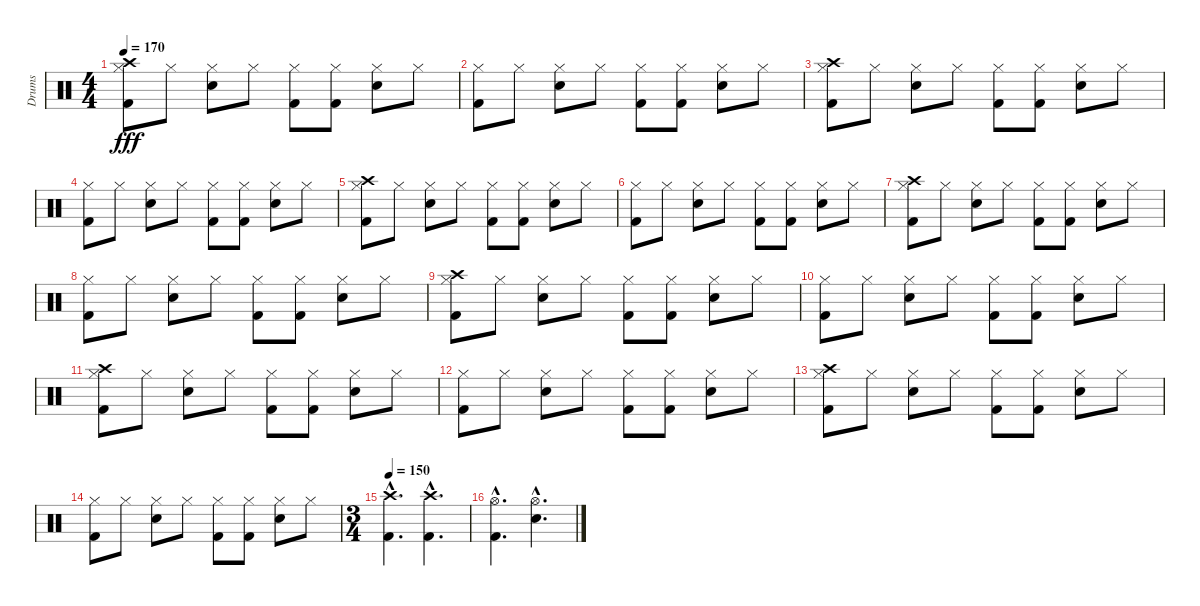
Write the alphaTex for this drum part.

\track ("Drums" "Drums") {instrument percussion}
\staff {score}
\articulation defaults
\ts (4 4)
\tempo 170
\clef neutral
\ks c
("Hi-Hat (closed)" "Kick (hit) 2" "Crash high (hit)").8{dy fff} "Hi-Hat (closed)".8 ("Hi-Hat (closed)" "Snare (hit) 2").8 "Hi-Hat (closed)".8 ("Hi-Hat (closed)" "Kick (hit) 2").8 ("Hi-Hat (closed)" "Kick (hit) 2").8 ("Hi-Hat (closed)" "Snare (hit) 2").8 "Hi-Hat (closed)".8 |
("Hi-Hat (closed)" "Kick (hit) 2").8 "Hi-Hat (closed)".8 ("Hi-Hat (closed)" "Snare (hit) 2").8 "Hi-Hat (closed)".8 ("Hi-Hat (closed)" "Kick (hit) 2").8 ("Hi-Hat (closed)" "Kick (hit) 2").8 ("Hi-Hat (closed)" "Snare (hit) 2").8 "Hi-Hat (closed)".8 |
("Hi-Hat (closed)" "Kick (hit) 2" "Crash high (hit)").8 "Hi-Hat (closed)".8 ("Hi-Hat (closed)" "Snare (hit) 2").8 "Hi-Hat (closed)".8 ("Hi-Hat (closed)" "Kick (hit) 2").8 ("Hi-Hat (closed)" "Kick (hit) 2").8 ("Hi-Hat (closed)" "Snare (hit) 2").8 "Hi-Hat (closed)".8 |
("Hi-Hat (closed)" "Kick (hit) 2").8 "Hi-Hat (closed)".8 ("Hi-Hat (closed)" "Snare (hit) 2").8 "Hi-Hat (closed)".8 ("Hi-Hat (closed)" "Kick (hit) 2").8 ("Hi-Hat (closed)" "Kick (hit) 2").8 ("Hi-Hat (closed)" "Snare (hit) 2").8 "Hi-Hat (closed)".8 |
("Hi-Hat (closed)" "Kick (hit) 2" "Crash high (hit)").8 "Hi-Hat (closed)".8 ("Hi-Hat (closed)" "Snare (hit) 2").8 "Hi-Hat (closed)".8 ("Hi-Hat (closed)" "Kick (hit) 2").8 ("Hi-Hat (closed)" "Kick (hit) 2").8 ("Hi-Hat (closed)" "Snare (hit) 2").8 "Hi-Hat (closed)".8 |
("Hi-Hat (closed)" "Kick (hit) 2").8 "Hi-Hat (closed)".8 ("Hi-Hat (closed)" "Snare (hit) 2").8 "Hi-Hat (closed)".8 ("Hi-Hat (closed)" "Kick (hit) 2").8 ("Hi-Hat (closed)" "Kick (hit) 2").8 ("Hi-Hat (closed)" "Snare (hit) 2").8 "Hi-Hat (closed)".8 |
("Hi-Hat (closed)" "Kick (hit) 2" "Crash high (hit)").8 "Hi-Hat (closed)".8 ("Hi-Hat (closed)" "Snare (hit) 2").8 "Hi-Hat (closed)".8 ("Hi-Hat (closed)" "Kick (hit) 2").8 ("Hi-Hat (closed)" "Kick (hit) 2").8 ("Hi-Hat (closed)" "Snare (hit) 2").8 "Hi-Hat (closed)".8 |
("Hi-Hat (closed)" "Kick (hit) 2").8 "Hi-Hat (closed)".8 ("Hi-Hat (closed)" "Snare (hit) 2").8 "Hi-Hat (closed)".8 ("Hi-Hat (closed)" "Kick (hit) 2").8 ("Hi-Hat (closed)" "Kick (hit) 2").8 ("Hi-Hat (closed)" "Snare (hit) 2").8 "Hi-Hat (closed)".8 |
("Hi-Hat (closed)" "Kick (hit) 2" "Crash high (hit)").8 "Hi-Hat (closed)".8 ("Hi-Hat (closed)" "Snare (hit) 2").8 "Hi-Hat (closed)".8 ("Hi-Hat (closed)" "Kick (hit) 2").8 ("Hi-Hat (closed)" "Kick (hit) 2").8 ("Hi-Hat (closed)" "Snare (hit) 2").8 "Hi-Hat (closed)".8 |
("Hi-Hat (closed)" "Kick (hit) 2").8 "Hi-Hat (closed)".8 ("Hi-Hat (closed)" "Snare (hit) 2").8 "Hi-Hat (closed)".8 ("Hi-Hat (closed)" "Kick (hit) 2").8 ("Hi-Hat (closed)" "Kick (hit) 2").8 ("Hi-Hat (closed)" "Snare (hit) 2").8 "Hi-Hat (closed)".8 |
("Hi-Hat (closed)" "Kick (hit) 2" "Crash high (hit)").8 "Hi-Hat (closed)".8 ("Hi-Hat (closed)" "Snare (hit) 2").8 "Hi-Hat (closed)".8 ("Hi-Hat (closed)" "Kick (hit) 2").8 ("Hi-Hat (closed)" "Kick (hit) 2").8 ("Hi-Hat (closed)" "Snare (hit) 2").8 "Hi-Hat (closed)".8 |
("Hi-Hat (closed)" "Kick (hit) 2").8 "Hi-Hat (closed)".8 ("Hi-Hat (closed)" "Snare (hit) 2").8 "Hi-Hat (closed)".8 ("Hi-Hat (closed)" "Kick (hit) 2").8 ("Hi-Hat (closed)" "Kick (hit) 2").8 ("Hi-Hat (closed)" "Snare (hit) 2").8 "Hi-Hat (closed)".8 |
("Hi-Hat (closed)" "Kick (hit) 2" "Crash high (hit)").8 "Hi-Hat (closed)".8 ("Hi-Hat (closed)" "Snare (hit) 2").8 "Hi-Hat (closed)".8 ("Hi-Hat (closed)" "Kick (hit) 2").8 ("Hi-Hat (closed)" "Kick (hit) 2").8 ("Hi-Hat (closed)" "Snare (hit) 2").8 "Hi-Hat (closed)".8 |
("Hi-Hat (closed)" "Kick (hit) 2").8 "Hi-Hat (closed)".8 ("Hi-Hat (closed)" "Snare (hit) 2").8 "Hi-Hat (closed)".8 ("Hi-Hat (closed)" "Kick (hit) 2").8 ("Hi-Hat (closed)" "Kick (hit) 2").8 ("Hi-Hat (closed)" "Snare (hit) 2").8 "Hi-Hat (closed)".8 |
\ts (3 4)
\tempo 150
("Crash high (hit)"{hac} "Kick (hit) 2"{hac}).4{d} ("Crash high (hit)"{hac} "Kick (hit) 2"{hac}).4{d} |
("Hi-Hat (open)"{hac} "Kick (hit) 2"{hac}).4{d} ("Hi-Hat (open)"{hac} "Snare (hit) 2"{hac}).4{d}
